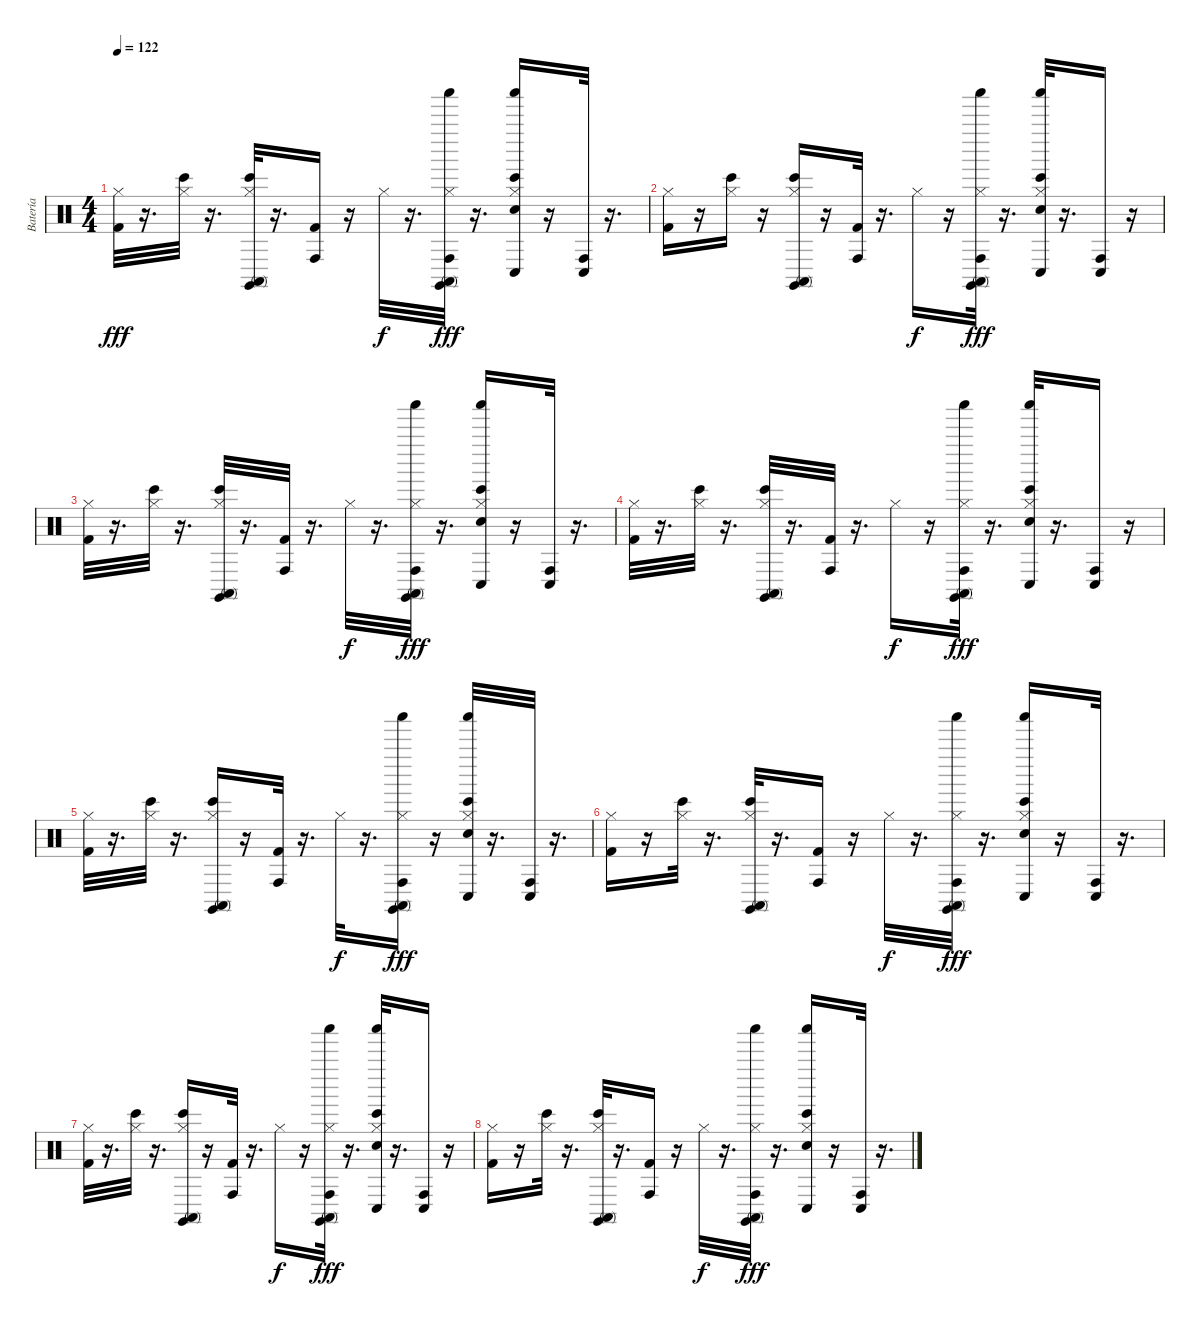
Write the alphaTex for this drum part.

\track ("Batería" "Batería") {instrument percussion}
\staff {score}
\articulation defaults
\ts (4 4)
\tempo 122
\clef neutral
\ks c
("Hi-Hat (closed)" "Kick (hit) 2").32{dy fff} r.16{d} ("Bongo High (hit)" "Hi-Hat (closed)").32 r.16{d} ("Claves (hit)" "Bongo High (hit)" "Conga high (mute)" "Hi-Hat (closed)").32 r.16{d} ("Conga high (hit)" "Kick (hit) 2").16 r.16 "Hi-Hat (closed)".32{dy f} r.16{d} ("Claves (hit)" "Conga high (hit)" "Conga high (mute)" "Shaker (hit)" "Hi-Hat (closed)").32{dy fff} r.16{d} ("Snare (hit) 2" "Bongo High (hit)" "Conga low (hit)" "Shaker (hit)" "Hi-Hat (closed)").16 r.16 ("Conga high (hit)" "Conga low (hit)").32 r.16{d} |
("Hi-Hat (closed)" "Kick (hit) 2").16 r.16 ("Bongo High (hit)" "Hi-Hat (closed)").16{volume 16} r.16 ("Claves (hit)" "Bongo High (hit)" "Conga high (mute)" "Hi-Hat (closed)").16{volume 16} r.16 ("Conga high (hit)" "Kick (hit) 2").32{volume 15} r.16{d} "Hi-Hat (closed)".16{dy f volume 15} r.16 ("Claves (hit)" "Conga high (hit)" "Conga high (mute)" "Shaker (hit)" "Hi-Hat (closed)").32{dy fff volume 15} r.16{d} ("Snare (hit) 2" "Bongo High (hit)" "Conga low (hit)" "Shaker (hit)" "Hi-Hat (closed)").32{volume 15} r.16{d} ("Conga high (hit)" "Conga low (hit)").16{volume 14} r.16 |
("Hi-Hat (closed)" "Kick (hit) 2").32{volume 14} r.16{d} ("Bongo High (hit)" "Hi-Hat (closed)").32{volume 14} r.16{d} ("Claves (hit)" "Bongo High (hit)" "Conga high (mute)" "Hi-Hat (closed)").32{volume 14} r.16{d} ("Conga high (hit)" "Kick (hit) 2").32{volume 14} r.16{d} "Hi-Hat (closed)".32{dy f volume 13} r.16{d} ("Claves (hit)" "Conga high (hit)" "Conga high (mute)" "Shaker (hit)" "Hi-Hat (closed)").32{dy fff volume 13} r.16{d} ("Snare (hit) 2" "Bongo High (hit)" "Conga low (hit)" "Shaker (hit)" "Hi-Hat (closed)").16{volume 13} r.16 ("Conga high (hit)" "Conga low (hit)").32{volume 13} r.16{d} |
("Hi-Hat (closed)" "Kick (hit) 2").32{volume 12} r.16{d} ("Bongo High (hit)" "Hi-Hat (closed)").32{volume 12} r.16{d} ("Claves (hit)" "Bongo High (hit)" "Conga high (mute)" "Hi-Hat (closed)").32{volume 12} r.16{d} ("Conga high (hit)" "Kick (hit) 2").32{volume 12} r.16{d} "Hi-Hat (closed)".16{dy f volume 12} r.16 ("Claves (hit)" "Conga high (hit)" "Conga high (mute)" "Shaker (hit)" "Hi-Hat (closed)").32{dy fff volume 11} r.16{d} ("Snare (hit) 2" "Bongo High (hit)" "Conga low (hit)" "Shaker (hit)" "Hi-Hat (closed)").32{volume 11} r.16{d} ("Conga high (hit)" "Conga low (hit)").16{volume 11} r.16 |
("Hi-Hat (closed)" "Kick (hit) 2").32{volume 11} r.16{d} ("Bongo High (hit)" "Hi-Hat (closed)").32{volume 10} r.16{d} ("Claves (hit)" "Bongo High (hit)" "Conga high (mute)" "Hi-Hat (closed)").16{volume 10} r.16 ("Conga high (hit)" "Kick (hit) 2").32{volume 10} r.16{d} "Hi-Hat (closed)".32{dy f volume 10} r.16{d} ("Claves (hit)" "Conga high (hit)" "Conga high (mute)" "Shaker (hit)" "Hi-Hat (closed)").16{dy fff volume 10} r.16 ("Snare (hit) 2" "Bongo High (hit)" "Conga low (hit)" "Shaker (hit)" "Hi-Hat (closed)").32{volume 9} r.16{d} ("Conga high (hit)" "Conga low (hit)").32{volume 9} r.16{d} |
("Hi-Hat (closed)" "Kick (hit) 2").16{volume 9} r.16 ("Bongo High (hit)" "Hi-Hat (closed)").32{volume 9} r.16{d} ("Claves (hit)" "Bongo High (hit)" "Conga high (mute)" "Hi-Hat (closed)").32{volume 8} r.16{d} ("Conga high (hit)" "Kick (hit) 2").16{volume 8} r.16 "Hi-Hat (closed)".32{dy f volume 8} r.16{d} ("Claves (hit)" "Conga high (hit)" "Conga high (mute)" "Shaker (hit)" "Hi-Hat (closed)").32{dy fff volume 8} r.16{d} ("Snare (hit) 2" "Bongo High (hit)" "Conga low (hit)" "Shaker (hit)" "Hi-Hat (closed)").16{volume 8} r.16 ("Conga high (hit)" "Conga low (hit)").32{volume 7} r.16{d} |
("Hi-Hat (closed)" "Kick (hit) 2").32{volume 7} r.16{d} ("Bongo High (hit)" "Hi-Hat (closed)").32{volume 7} r.16{d} ("Claves (hit)" "Bongo High (hit)" "Conga high (mute)" "Hi-Hat (closed)").16{volume 7} r.16 ("Conga high (hit)" "Kick (hit) 2").32{volume 6} r.16{d} "Hi-Hat (closed)".16{dy f volume 6} r.16 ("Claves (hit)" "Conga high (hit)" "Conga high (mute)" "Shaker (hit)" "Hi-Hat (closed)").32{dy fff volume 6} r.16{d} ("Snare (hit) 2" "Bongo High (hit)" "Conga low (hit)" "Shaker (hit)" "Hi-Hat (closed)").32{volume 6} r.16{d} ("Conga high (hit)" "Conga low (hit)").16{volume 6} r.16 |
("Hi-Hat (closed)" "Kick (hit) 2").16{volume 5} r.16 ("Bongo High (hit)" "Hi-Hat (closed)").32{volume 5} r.16{d} ("Claves (hit)" "Bongo High (hit)" "Conga high (mute)" "Hi-Hat (closed)").32{volume 5} r.16{d} ("Conga high (hit)" "Kick (hit) 2").16{volume 5} r.16 "Hi-Hat (closed)".32{dy f volume 4} r.16{d} ("Claves (hit)" "Conga high (hit)" "Conga high (mute)" "Shaker (hit)" "Hi-Hat (closed)").32{dy fff volume 4} r.16{d} ("Snare (hit) 2" "Bongo High (hit)" "Conga low (hit)" "Shaker (hit)" "Hi-Hat (closed)").16{volume 4} r.16 ("Conga high (hit)" "Conga low (hit)").32{volume 4} r.16{d}
